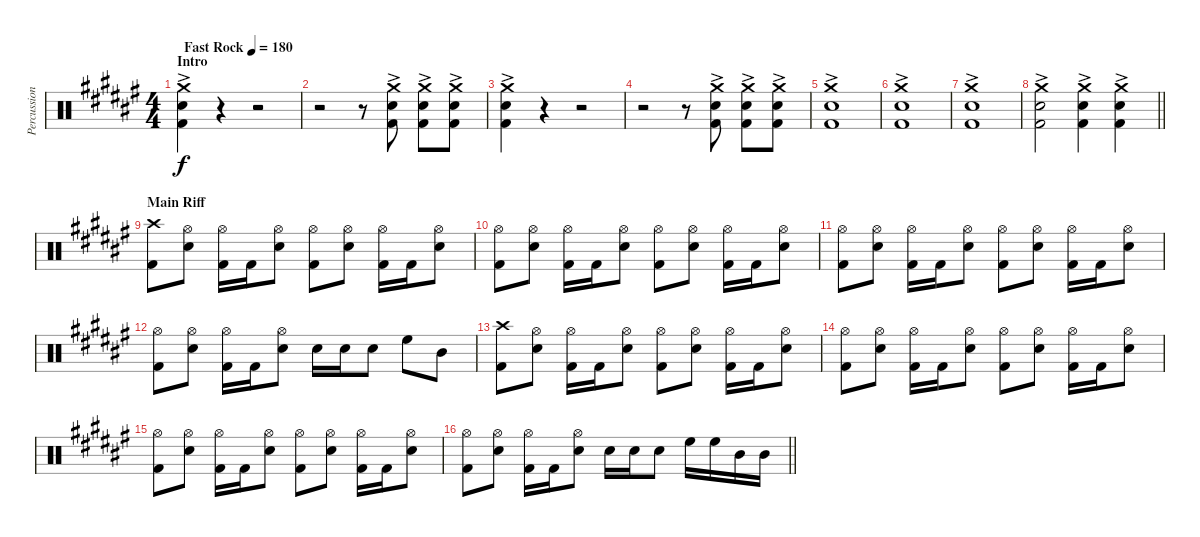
\track ("Percussion" "Percussion") {instrument percussion}
\staff {score}
\articulation defaults
\ts (4 4)
\section ("" "Intro")
\tempo (180 "Fast Rock")
\clef neutral
\ks f#
("Crash medium (hit)"{ac} "Snare (hit) 2"{ac} "Kick (hit) 2"{ac}).4{dy f} r.4 r.2 |
r.2 r.8 ("Crash medium (hit)"{ac} "Snare (hit) 2"{ac} "Kick (hit) 2"{ac}).8 ("Crash medium (hit)"{ac} "Snare (hit) 2"{ac} "Kick (hit) 2"{ac}).8 ("Crash medium (hit)"{ac} "Snare (hit) 2"{ac} "Kick (hit) 2"{ac}).8 |
("Crash medium (hit)"{ac} "Snare (hit) 2"{ac} "Kick (hit) 2"{ac}).4 r.4 r.2 |
r.2 r.8 ("Crash medium (hit)"{ac} "Snare (hit) 2"{ac} "Kick (hit) 2"{ac}).8 ("Crash medium (hit)"{ac} "Snare (hit) 2"{ac} "Kick (hit) 2"{ac}).8 ("Crash medium (hit)"{ac} "Snare (hit) 2"{ac} "Kick (hit) 2"{ac}).8 |
("Crash medium (hit)"{ac} "Snare (hit) 2"{ac} "Kick (hit) 2"{ac}).1 |
("Crash medium (hit)"{ac} "Snare (hit) 2"{ac} "Kick (hit) 2"{ac}).1 |
("Crash medium (hit)"{ac} "Snare (hit) 2"{ac} "Kick (hit) 2"{ac}).1 |
\barLineRight lightlight
("Crash medium (hit)"{ac} "Snare (hit) 2"{ac} "Kick (hit) 2"{ac}).2 ("Crash medium (hit)"{ac} "Snare (hit) 2"{ac} "Kick (hit) 2"{ac}).4 ("Crash medium (hit)"{ac} "Snare (hit) 2"{ac} "Kick (hit) 2"{ac}).4 |
\section ("" "Main Riff")
("Crash high (hit)" "Kick (hit) 2").8 ("Hi-Hat (open)" "Snare (hit) 2").8 ("Hi-Hat (open)" "Kick (hit) 2").16 "Kick (hit) 2".16 ("Hi-Hat (open)" "Snare (hit) 2").8 ("Hi-Hat (open)" "Kick (hit) 2").8 ("Hi-Hat (open)" "Snare (hit) 2").8 ("Hi-Hat (open)" "Kick (hit) 2").16 "Kick (hit) 2".16 ("Hi-Hat (open)" "Snare (hit) 2").8 |
("Hi-Hat (open)" "Kick (hit) 2").8 ("Hi-Hat (open)" "Snare (hit) 2").8 ("Hi-Hat (open)" "Kick (hit) 2").16 "Kick (hit) 2".16 ("Hi-Hat (open)" "Snare (hit) 2").8 ("Hi-Hat (open)" "Kick (hit) 2").8 ("Hi-Hat (open)" "Snare (hit) 2").8 ("Hi-Hat (open)" "Kick (hit) 2").16 "Kick (hit) 2".16 ("Hi-Hat (open)" "Snare (hit) 2").8 |
("Hi-Hat (open)" "Kick (hit) 2").8 ("Hi-Hat (open)" "Snare (hit) 2").8 ("Hi-Hat (open)" "Kick (hit) 2").16 "Kick (hit) 2".16 ("Hi-Hat (open)" "Snare (hit) 2").8 ("Hi-Hat (open)" "Kick (hit) 2").8 ("Hi-Hat (open)" "Snare (hit) 2").8 ("Hi-Hat (open)" "Kick (hit) 2").16 "Kick (hit) 2".16 ("Hi-Hat (open)" "Snare (hit) 2").8 |
("Hi-Hat (open)" "Kick (hit) 2").8 ("Hi-Hat (open)" "Snare (hit) 2").8 ("Hi-Hat (open)" "Kick (hit) 2").16 "Kick (hit) 2".16 ("Hi-Hat (open)" "Snare (hit) 2").8 "Snare (hit) 2".16 "Snare (hit) 2".16 "Snare (hit) 2".8 "High Floor Tom (hit)".8 "Mid Tom (hit)".8 |
("Crash high (hit)" "Kick (hit) 2").8 ("Hi-Hat (open)" "Snare (hit) 2").8 ("Hi-Hat (open)" "Kick (hit) 2").16 "Kick (hit) 2".16 ("Hi-Hat (open)" "Snare (hit) 2").8 ("Hi-Hat (open)" "Kick (hit) 2").8 ("Hi-Hat (open)" "Snare (hit) 2").8 ("Hi-Hat (open)" "Kick (hit) 2").16 "Kick (hit) 2".16 ("Hi-Hat (open)" "Snare (hit) 2").8 |
("Hi-Hat (open)" "Kick (hit) 2").8 ("Hi-Hat (open)" "Snare (hit) 2").8 ("Hi-Hat (open)" "Kick (hit) 2").16 "Kick (hit) 2".16 ("Hi-Hat (open)" "Snare (hit) 2").8 ("Hi-Hat (open)" "Kick (hit) 2").8 ("Hi-Hat (open)" "Snare (hit) 2").8 ("Hi-Hat (open)" "Kick (hit) 2").16 "Kick (hit) 2".16 ("Hi-Hat (open)" "Snare (hit) 2").8 |
("Hi-Hat (open)" "Kick (hit) 2").8 ("Hi-Hat (open)" "Snare (hit) 2").8 ("Hi-Hat (open)" "Kick (hit) 2").16 "Kick (hit) 2".16 ("Hi-Hat (open)" "Snare (hit) 2").8 ("Hi-Hat (open)" "Kick (hit) 2").8 ("Hi-Hat (open)" "Snare (hit) 2").8 ("Hi-Hat (open)" "Kick (hit) 2").16 "Kick (hit) 2".16 ("Hi-Hat (open)" "Snare (hit) 2").8 |
\barLineRight lightlight
("Hi-Hat (open)" "Kick (hit) 2").8 ("Hi-Hat (open)" "Snare (hit) 2").8 ("Hi-Hat (open)" "Kick (hit) 2").16 "Kick (hit) 2".16 ("Hi-Hat (open)" "Snare (hit) 2").8 "Snare (hit) 2".16 "Snare (hit) 2".16 "Snare (hit) 2".8 "High Floor Tom (hit)".16 "High Floor Tom (hit)".16 "Mid Tom (hit)".16 "Mid Tom (hit)".16
